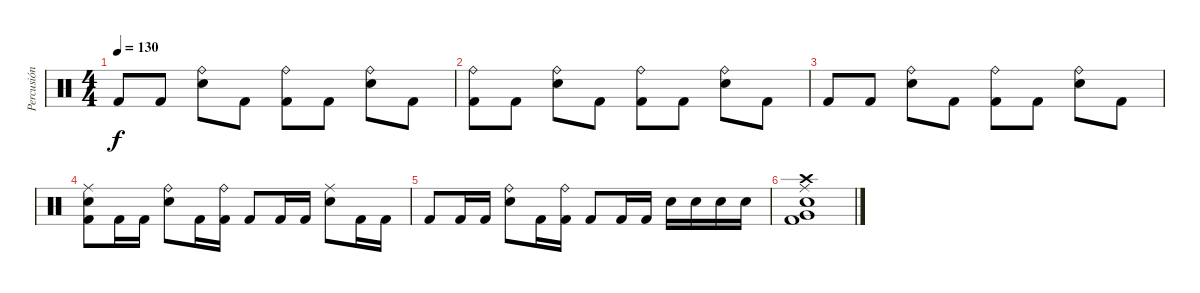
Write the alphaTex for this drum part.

\track ("Percusión" "Percusión") {instrument percussion}
\staff {score}
\articulation defaults
\ts (4 4)
\tempo 130
\clef neutral
\ks c "Kick (hit) 2".8{dy f} "Kick (hit) 2".8
("Electric Snare (hit)" "Ride (bell)").8 "Kick (hit) 2".8 ("Kick (hit) 2" "Ride (bell)").8 "Kick (hit) 2".8 ("Electric Snare (hit)" "Ride (bell)").8 "Kick (hit) 2".8 |
("Kick (hit) 2" "Ride (bell)").8 "Kick (hit) 2".8 ("Electric Snare (hit)" "Ride (bell)").8 "Kick (hit) 2".8 ("Kick (hit) 2" "Ride (bell)").8 "Kick (hit) 2".8 ("Electric Snare (hit)" "Ride (bell)").8 "Kick (hit) 2".8 |
"Kick (hit) 2".8 "Kick (hit) 2".8 ("Electric Snare (hit)" "Ride (bell)").8 "Kick (hit) 2".8 ("Kick (hit) 2" "Ride (bell)").8 "Kick (hit) 2".8 ("Electric Snare (hit)" "Ride (bell)").8 "Kick (hit) 2".8 |
("Kick (hit) 2" "Ride (middle)" "Electric Snare (hit)").8 "Kick (hit) 2".16 "Kick (hit) 2".16 ("Electric Snare (hit)" "Ride (bell)").8 "Kick (hit) 2".16 ("Kick (hit) 2" "Ride (bell)").16 "Kick (hit) 2".8 "Kick (hit) 2".16 "Kick (hit) 2".16 ("Electric Snare (hit)" "Ride (middle)").8 "Kick (hit) 2".16 "Kick (hit) 2".16 |
"Kick (hit) 2".8 "Kick (hit) 2".16 "Kick (hit) 2".16 ("Electric Snare (hit)" "Ride (bell)").8 "Kick (hit) 2".16 ("Kick (hit) 2" "Ride (bell)").16 "Kick (hit) 2".8 "Kick (hit) 2".16 "Kick (hit) 2".16 "Electric Snare (hit)".16 "Electric Snare (hit)".16 "Electric Snare (hit)".16 "Electric Snare (hit)".16 |
("Very Low Tom (hit)" "Crash high (hit)" "Electric Snare (hit)" "Ride (middle)" "Kick (hit) 2").1
